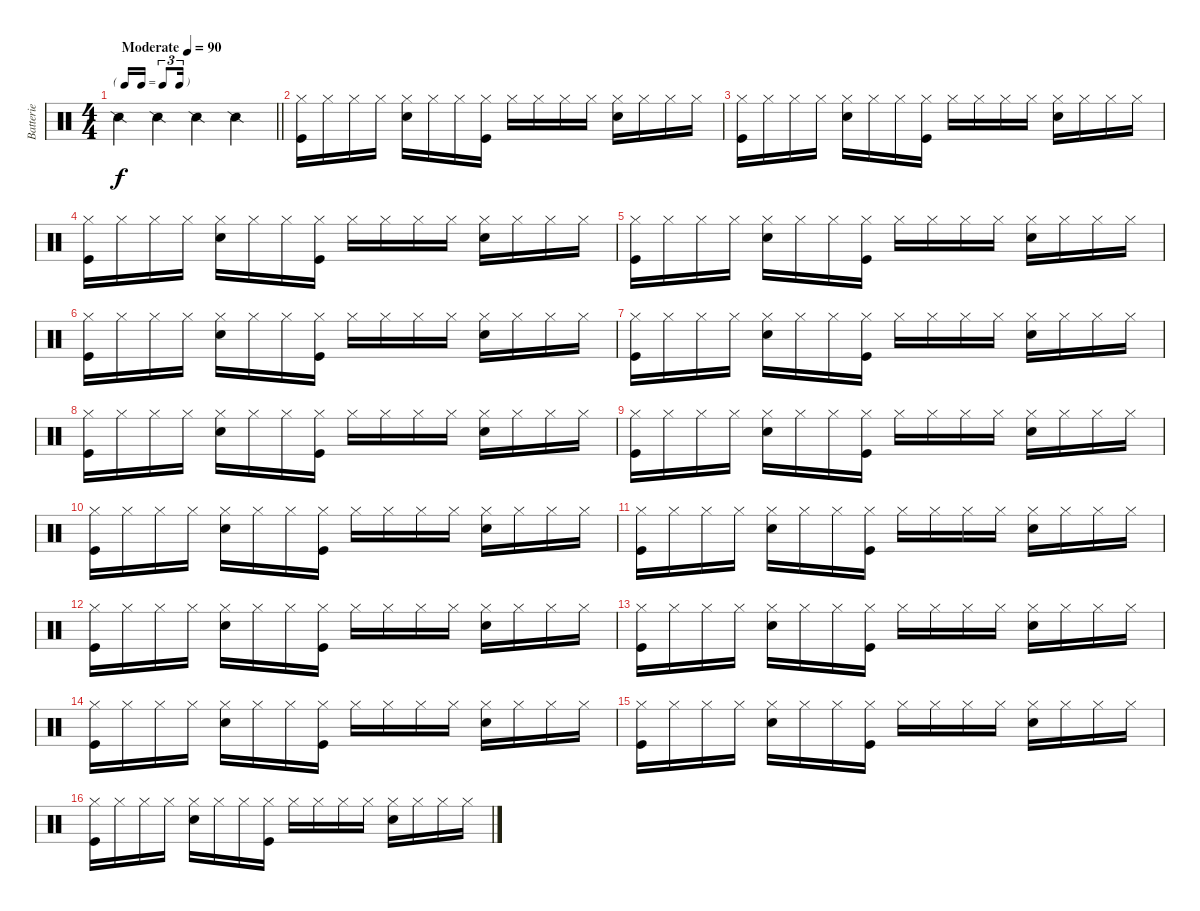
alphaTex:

\track ("Batterie" "Batterie") {instrument percussion}
\staff {score}
\articulation defaults
\ts (4 4)
\tf triplet16th
\tempo (90 "Moderate")
\clef neutral
\barLineRight lightlight
\ks c "Snare (side stick) 2".4{dy f} "Snare (side stick) 2".4 "Snare (side stick) 2".4 "Snare (side stick) 2".4
|
("Hi-Hat (closed)" "Kick (hit)").16 "Hi-Hat (closed)".16 "Hi-Hat (closed)".16 "Hi-Hat (closed)".16 ("Hi-Hat (closed)" "Snare (hit) 2").16 "Hi-Hat (closed)".16 "Hi-Hat (closed)".16 ("Hi-Hat (closed)" "Kick (hit)").16 "Hi-Hat (closed)".16 "Hi-Hat (closed)".16 "Hi-Hat (closed)".16 "Hi-Hat (closed)".16 ("Hi-Hat (closed)" "Snare (hit) 2").16 "Hi-Hat (closed)".16 "Hi-Hat (closed)".16 "Hi-Hat (closed)".16 |
("Hi-Hat (closed)" "Kick (hit)").16 "Hi-Hat (closed)".16 "Hi-Hat (closed)".16 "Hi-Hat (closed)".16 ("Hi-Hat (closed)" "Snare (hit) 2").16 "Hi-Hat (closed)".16 "Hi-Hat (closed)".16 ("Hi-Hat (closed)" "Kick (hit)").16 "Hi-Hat (closed)".16 "Hi-Hat (closed)".16 "Hi-Hat (closed)".16 "Hi-Hat (closed)".16 ("Hi-Hat (closed)" "Snare (hit) 2").16 "Hi-Hat (closed)".16 "Hi-Hat (closed)".16 "Hi-Hat (closed)".16 |
("Hi-Hat (closed)" "Kick (hit)").16 "Hi-Hat (closed)".16 "Hi-Hat (closed)".16 "Hi-Hat (closed)".16 ("Hi-Hat (closed)" "Snare (hit) 2").16 "Hi-Hat (closed)".16 "Hi-Hat (closed)".16 ("Hi-Hat (closed)" "Kick (hit)").16 "Hi-Hat (closed)".16 "Hi-Hat (closed)".16 "Hi-Hat (closed)".16 "Hi-Hat (closed)".16 ("Hi-Hat (closed)" "Snare (hit) 2").16 "Hi-Hat (closed)".16 "Hi-Hat (closed)".16 "Hi-Hat (closed)".16 |
("Hi-Hat (closed)" "Kick (hit)").16 "Hi-Hat (closed)".16 "Hi-Hat (closed)".16 "Hi-Hat (closed)".16 ("Hi-Hat (closed)" "Snare (hit) 2").16 "Hi-Hat (closed)".16 "Hi-Hat (closed)".16 ("Hi-Hat (closed)" "Kick (hit)").16 "Hi-Hat (closed)".16 "Hi-Hat (closed)".16 "Hi-Hat (closed)".16 "Hi-Hat (closed)".16 ("Hi-Hat (closed)" "Snare (hit) 2").16 "Hi-Hat (closed)".16 "Hi-Hat (closed)".16 "Hi-Hat (closed)".16 |
("Hi-Hat (closed)" "Kick (hit)").16 "Hi-Hat (closed)".16 "Hi-Hat (closed)".16 "Hi-Hat (closed)".16 ("Hi-Hat (closed)" "Snare (hit) 2").16 "Hi-Hat (closed)".16 "Hi-Hat (closed)".16 ("Hi-Hat (closed)" "Kick (hit)").16 "Hi-Hat (closed)".16 "Hi-Hat (closed)".16 "Hi-Hat (closed)".16 "Hi-Hat (closed)".16 ("Hi-Hat (closed)" "Snare (hit) 2").16 "Hi-Hat (closed)".16 "Hi-Hat (closed)".16 "Hi-Hat (closed)".16 |
("Hi-Hat (closed)" "Kick (hit)").16 "Hi-Hat (closed)".16 "Hi-Hat (closed)".16 "Hi-Hat (closed)".16 ("Hi-Hat (closed)" "Snare (hit) 2").16 "Hi-Hat (closed)".16 "Hi-Hat (closed)".16 ("Hi-Hat (closed)" "Kick (hit)").16 "Hi-Hat (closed)".16 "Hi-Hat (closed)".16 "Hi-Hat (closed)".16 "Hi-Hat (closed)".16 ("Hi-Hat (closed)" "Snare (hit) 2").16 "Hi-Hat (closed)".16 "Hi-Hat (closed)".16 "Hi-Hat (closed)".16 |
("Hi-Hat (closed)" "Kick (hit)").16 "Hi-Hat (closed)".16 "Hi-Hat (closed)".16 "Hi-Hat (closed)".16 ("Hi-Hat (closed)" "Snare (hit) 2").16 "Hi-Hat (closed)".16 "Hi-Hat (closed)".16 ("Hi-Hat (closed)" "Kick (hit)").16 "Hi-Hat (closed)".16 "Hi-Hat (closed)".16 "Hi-Hat (closed)".16 "Hi-Hat (closed)".16 ("Hi-Hat (closed)" "Snare (hit) 2").16 "Hi-Hat (closed)".16 "Hi-Hat (closed)".16 "Hi-Hat (closed)".16 |
("Hi-Hat (closed)" "Kick (hit)").16 "Hi-Hat (closed)".16 "Hi-Hat (closed)".16 "Hi-Hat (closed)".16 ("Hi-Hat (closed)" "Snare (hit) 2").16 "Hi-Hat (closed)".16 "Hi-Hat (closed)".16 ("Hi-Hat (closed)" "Kick (hit)").16 "Hi-Hat (closed)".16 "Hi-Hat (closed)".16 "Hi-Hat (closed)".16 "Hi-Hat (closed)".16 ("Hi-Hat (closed)" "Snare (hit) 2").16 "Hi-Hat (closed)".16 "Hi-Hat (closed)".16 "Hi-Hat (closed)".16 |
("Hi-Hat (closed)" "Kick (hit)").16 "Hi-Hat (closed)".16 "Hi-Hat (closed)".16 "Hi-Hat (closed)".16 ("Hi-Hat (closed)" "Snare (hit) 2").16 "Hi-Hat (closed)".16 "Hi-Hat (closed)".16 ("Hi-Hat (closed)" "Kick (hit)").16 "Hi-Hat (closed)".16 "Hi-Hat (closed)".16 "Hi-Hat (closed)".16 "Hi-Hat (closed)".16 ("Hi-Hat (closed)" "Snare (hit) 2").16 "Hi-Hat (closed)".16 "Hi-Hat (closed)".16 "Hi-Hat (closed)".16 |
("Hi-Hat (closed)" "Kick (hit)").16 "Hi-Hat (closed)".16 "Hi-Hat (closed)".16 "Hi-Hat (closed)".16 ("Hi-Hat (closed)" "Snare (hit) 2").16 "Hi-Hat (closed)".16 "Hi-Hat (closed)".16 ("Hi-Hat (closed)" "Kick (hit)").16 "Hi-Hat (closed)".16 "Hi-Hat (closed)".16 "Hi-Hat (closed)".16 "Hi-Hat (closed)".16 ("Hi-Hat (closed)" "Snare (hit) 2").16 "Hi-Hat (closed)".16 "Hi-Hat (closed)".16 "Hi-Hat (closed)".16 |
("Hi-Hat (closed)" "Kick (hit)").16 "Hi-Hat (closed)".16 "Hi-Hat (closed)".16 "Hi-Hat (closed)".16 ("Hi-Hat (closed)" "Snare (hit) 2").16 "Hi-Hat (closed)".16 "Hi-Hat (closed)".16 ("Hi-Hat (closed)" "Kick (hit)").16 "Hi-Hat (closed)".16 "Hi-Hat (closed)".16 "Hi-Hat (closed)".16 "Hi-Hat (closed)".16 ("Hi-Hat (closed)" "Snare (hit) 2").16 "Hi-Hat (closed)".16 "Hi-Hat (closed)".16 "Hi-Hat (closed)".16 |
("Hi-Hat (closed)" "Kick (hit)").16 "Hi-Hat (closed)".16 "Hi-Hat (closed)".16 "Hi-Hat (closed)".16 ("Hi-Hat (closed)" "Snare (hit) 2").16 "Hi-Hat (closed)".16 "Hi-Hat (closed)".16 ("Hi-Hat (closed)" "Kick (hit)").16 "Hi-Hat (closed)".16 "Hi-Hat (closed)".16 "Hi-Hat (closed)".16 "Hi-Hat (closed)".16 ("Hi-Hat (closed)" "Snare (hit) 2").16 "Hi-Hat (closed)".16 "Hi-Hat (closed)".16 "Hi-Hat (closed)".16 |
("Hi-Hat (closed)" "Kick (hit)").16 "Hi-Hat (closed)".16 "Hi-Hat (closed)".16 "Hi-Hat (closed)".16 ("Hi-Hat (closed)" "Snare (hit) 2").16 "Hi-Hat (closed)".16 "Hi-Hat (closed)".16 ("Hi-Hat (closed)" "Kick (hit)").16 "Hi-Hat (closed)".16 "Hi-Hat (closed)".16 "Hi-Hat (closed)".16 "Hi-Hat (closed)".16 ("Hi-Hat (closed)" "Snare (hit) 2").16 "Hi-Hat (closed)".16 "Hi-Hat (closed)".16 "Hi-Hat (closed)".16 |
("Hi-Hat (closed)" "Kick (hit)").16 "Hi-Hat (closed)".16 "Hi-Hat (closed)".16 "Hi-Hat (closed)".16 ("Hi-Hat (closed)" "Snare (hit) 2").16 "Hi-Hat (closed)".16 "Hi-Hat (closed)".16 ("Hi-Hat (closed)" "Kick (hit)").16 "Hi-Hat (closed)".16 "Hi-Hat (closed)".16 "Hi-Hat (closed)".16 "Hi-Hat (closed)".16 ("Hi-Hat (closed)" "Snare (hit) 2").16 "Hi-Hat (closed)".16 "Hi-Hat (closed)".16 "Hi-Hat (closed)".16 |
("Hi-Hat (closed)" "Kick (hit)").16 "Hi-Hat (closed)".16 "Hi-Hat (closed)".16 "Hi-Hat (closed)".16 ("Hi-Hat (closed)" "Snare (hit) 2").16 "Hi-Hat (closed)".16 "Hi-Hat (closed)".16 ("Hi-Hat (closed)" "Kick (hit)").16 "Hi-Hat (closed)".16 "Hi-Hat (closed)".16 "Hi-Hat (closed)".16 "Hi-Hat (closed)".16 ("Hi-Hat (closed)" "Snare (hit) 2").16 "Hi-Hat (closed)".16 "Hi-Hat (closed)".16 "Hi-Hat (closed)".16
